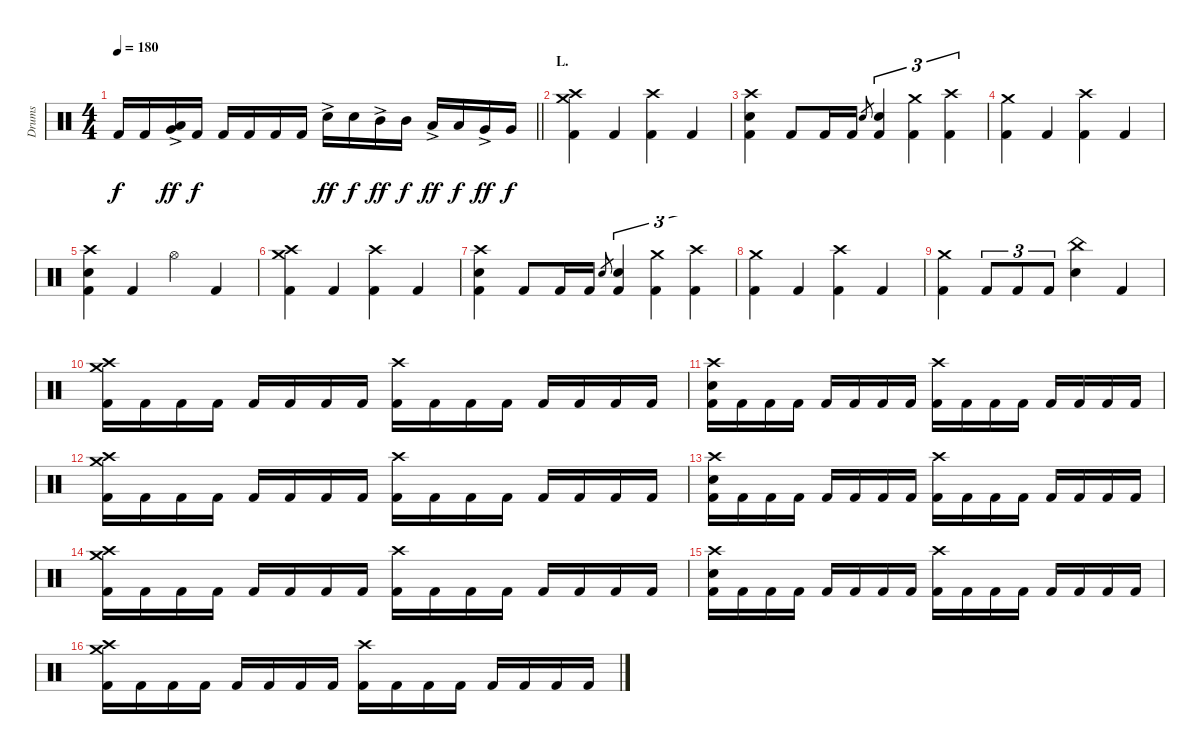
\track ("Drums" "Drums") {instrument percussion}
\staff {score}
\articulation defaults
\ts (4 4)
\tempo 180
\clef neutral
\barLineRight lightlight
\ks c "Kick (hit) 2".16{dy f} "Kick (hit) 2".16
("Low Tom (hit)" "Very Low Tom (hit)"{ac}).16{bu 60 dy ff} "Kick (hit) 2".16{dy f} "Kick (hit) 2".16 "Kick (hit) 2".16 "Kick (hit) 2".16 "Kick (hit) 2".16 "Electric Snare (hit)"{ac}.16{dy ff} "Electric Snare (hit)".16{dy f} "Mid Tom (hit)"{ac}.16{dy ff} "Mid Tom (hit)".16{dy f} "Low Tom (hit)"{ac}.16{dy ff} "Low Tom (hit)".16{dy f} "Very Low Tom (hit)"{ac}.16{dy ff} "Very Low Tom (hit)".16{dy f} |
\section ("" "L.")
("Crash medium (hit)" "Crash high (hit)" "Kick (hit) 2").4 "Kick (hit) 2".4 ("Crash high (hit)" "Kick (hit) 2").4 "Kick (hit) 2".4 |
("Crash high (hit)" "Electric Snare (hit)" "Kick (hit) 2").4 "Kick (hit) 2".8 "Kick (hit) 2".16 "Kick (hit) 2".16 "Electric Snare (hit)".8{gr} ("Electric Snare (hit)" "Kick (hit) 2").4{tu (3 2)} ("Crash medium (hit)" "Kick (hit) 2").4{tu (3 2)} ("Crash high (hit)" "Kick (hit) 2").4{tu (3 2)} |
("Crash medium (hit)" "Kick (hit) 2").4 "Kick (hit) 2".4 ("Crash high (hit)" "Kick (hit) 2").4 "Kick (hit) 2".4 |
("Crash high (hit)" "Electric Snare (hit)" "Kick (hit) 2").4 "Kick (hit) 2".4 "Hi-Hat (open)".4 "Kick (hit) 2".4 |
("Crash medium (hit)" "Crash high (hit)" "Kick (hit) 2").4 "Kick (hit) 2".4 ("Crash high (hit)" "Kick (hit) 2").4 "Kick (hit) 2".4 |
("Crash high (hit)" "Electric Snare (hit)" "Kick (hit) 2").4 "Kick (hit) 2".8 "Kick (hit) 2".16 "Kick (hit) 2".16 "Electric Snare (hit)".8{gr} ("Electric Snare (hit)" "Kick (hit) 2").4{tu (3 2)} ("Crash medium (hit)" "Kick (hit) 2").4{tu (3 2)} ("Crash high (hit)" "Kick (hit) 2").4{tu (3 2)} |
("Crash medium (hit)" "Kick (hit) 2").4 "Kick (hit) 2".4 ("Crash high (hit)" "Kick (hit) 2").4 "Kick (hit) 2".4 |
("Crash medium (hit)" "Kick (hit) 2").4 "Kick (hit) 2".8{tu (3 2)} "Kick (hit) 2".8{tu (3 2)} "Kick (hit) 2".8{tu (3 2)} ("China (hit)" "Electric Snare (hit)").4 "Kick (hit) 2".4 |
("Crash medium (hit)" "Crash high (hit)" "Kick (hit) 2").16 "Kick (hit) 2".16 "Kick (hit) 2".16 "Kick (hit) 2".16 "Kick (hit) 2".16 "Kick (hit) 2".16 "Kick (hit) 2".16 "Kick (hit) 2".16 ("Crash high (hit)" "Kick (hit) 2").16 "Kick (hit) 2".16 "Kick (hit) 2".16 "Kick (hit) 2".16 "Kick (hit) 2".16 "Kick (hit) 2".16 "Kick (hit) 2".16 "Kick (hit) 2".16 |
("Crash high (hit)" "Electric Snare (hit)" "Kick (hit) 2").16 "Kick (hit) 2".16 "Kick (hit) 2".16 "Kick (hit) 2".16 "Kick (hit) 2".16 "Kick (hit) 2".16 "Kick (hit) 2".16 "Kick (hit) 2".16 ("Crash high (hit)" "Kick (hit) 2").16 "Kick (hit) 2".16 "Kick (hit) 2".16 "Kick (hit) 2".16 "Kick (hit) 2".16 "Kick (hit) 2".16 "Kick (hit) 2".16 "Kick (hit) 2".16 |
("Crash medium (hit)" "Crash high (hit)" "Kick (hit) 2").16 "Kick (hit) 2".16 "Kick (hit) 2".16 "Kick (hit) 2".16 "Kick (hit) 2".16 "Kick (hit) 2".16 "Kick (hit) 2".16 "Kick (hit) 2".16 ("Crash high (hit)" "Kick (hit) 2").16 "Kick (hit) 2".16 "Kick (hit) 2".16 "Kick (hit) 2".16 "Kick (hit) 2".16 "Kick (hit) 2".16 "Kick (hit) 2".16 "Kick (hit) 2".16 |
("Crash high (hit)" "Electric Snare (hit)" "Kick (hit) 2").16 "Kick (hit) 2".16 "Kick (hit) 2".16 "Kick (hit) 2".16 "Kick (hit) 2".16 "Kick (hit) 2".16 "Kick (hit) 2".16 "Kick (hit) 2".16 ("Crash high (hit)" "Kick (hit) 2").16 "Kick (hit) 2".16 "Kick (hit) 2".16 "Kick (hit) 2".16 "Kick (hit) 2".16 "Kick (hit) 2".16 "Kick (hit) 2".16 "Kick (hit) 2".16 |
("Crash medium (hit)" "Crash high (hit)" "Kick (hit) 2").16 "Kick (hit) 2".16 "Kick (hit) 2".16 "Kick (hit) 2".16 "Kick (hit) 2".16 "Kick (hit) 2".16 "Kick (hit) 2".16 "Kick (hit) 2".16 ("Crash high (hit)" "Kick (hit) 2").16 "Kick (hit) 2".16 "Kick (hit) 2".16 "Kick (hit) 2".16 "Kick (hit) 2".16 "Kick (hit) 2".16 "Kick (hit) 2".16 "Kick (hit) 2".16 |
("Crash high (hit)" "Electric Snare (hit)" "Kick (hit) 2").16 "Kick (hit) 2".16 "Kick (hit) 2".16 "Kick (hit) 2".16 "Kick (hit) 2".16 "Kick (hit) 2".16 "Kick (hit) 2".16 "Kick (hit) 2".16 ("Crash high (hit)" "Kick (hit) 2").16 "Kick (hit) 2".16 "Kick (hit) 2".16 "Kick (hit) 2".16 "Kick (hit) 2".16 "Kick (hit) 2".16 "Kick (hit) 2".16 "Kick (hit) 2".16 |
("Crash medium (hit)" "Crash high (hit)" "Kick (hit) 2").16 "Kick (hit) 2".16 "Kick (hit) 2".16 "Kick (hit) 2".16 "Kick (hit) 2".16 "Kick (hit) 2".16 "Kick (hit) 2".16 "Kick (hit) 2".16 ("Crash high (hit)" "Kick (hit) 2").16 "Kick (hit) 2".16 "Kick (hit) 2".16 "Kick (hit) 2".16 "Kick (hit) 2".16 "Kick (hit) 2".16 "Kick (hit) 2".16 "Kick (hit) 2".16
